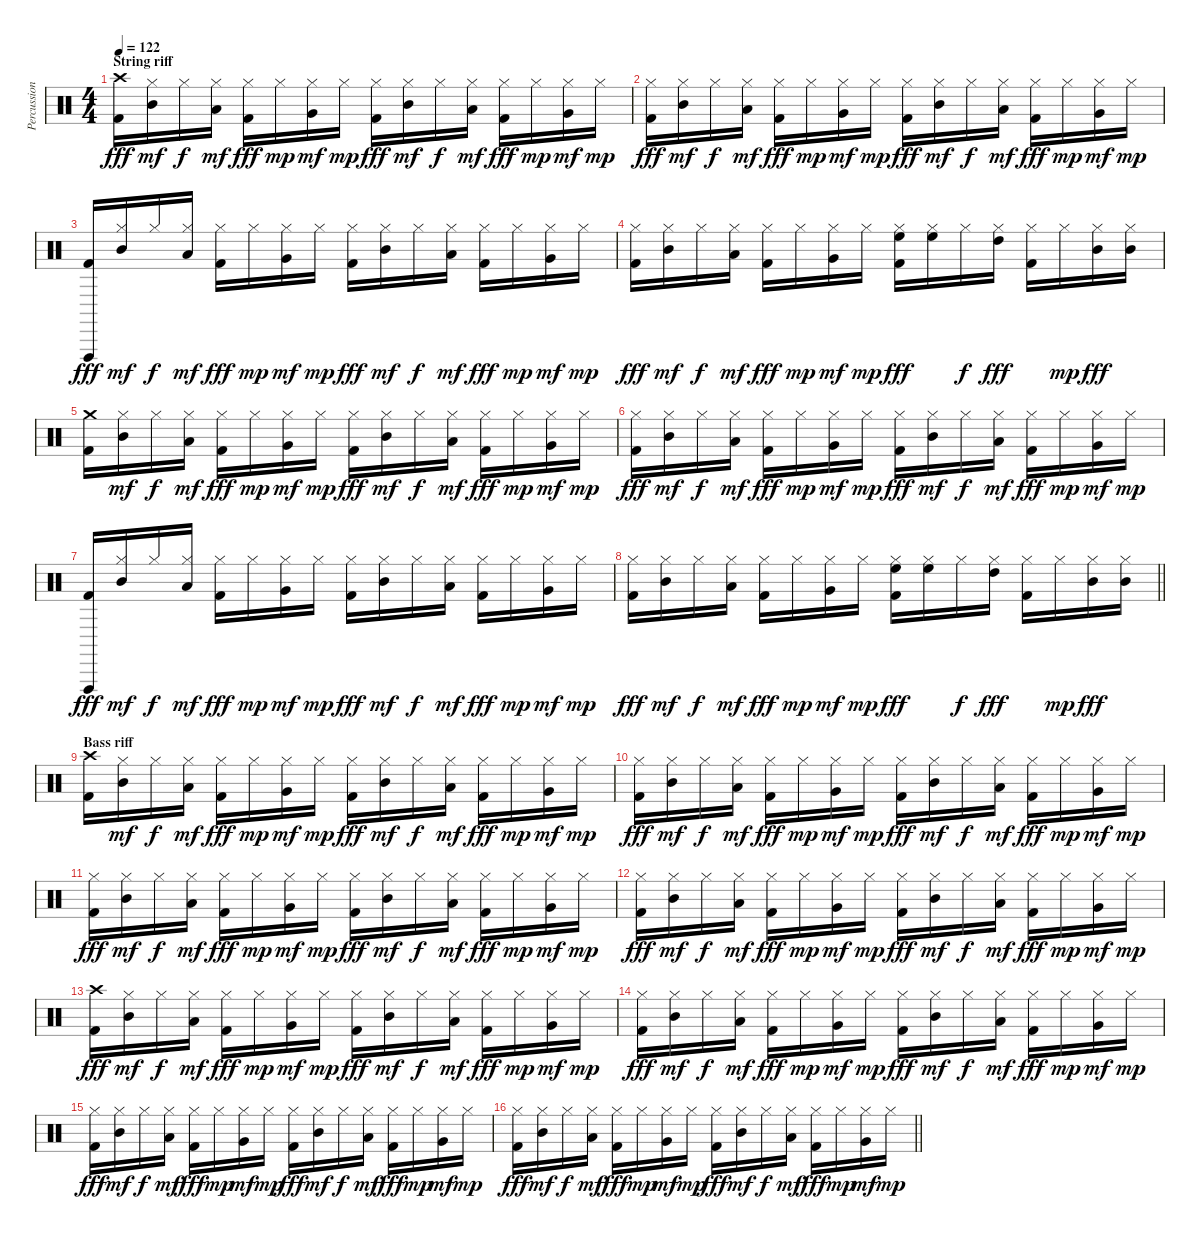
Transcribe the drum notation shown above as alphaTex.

\track ("Percussions" "Percussion") {instrument percussion}
\staff {score}
\articulation defaults
\ts (4 4)
\section ("" "String riff")
\tempo 122
\clef neutral
\ks c
("Crash high (hit)" "Kick (hit) 2").16{dy fff} ("Hi-Hat (closed)" "Mid Tom (hit)").16{dy mf} "Hi-Hat (closed)".16{dy f} ("Hi-Hat (closed)" "Low Tom (hit)").16{dy mf} ("Hi-Hat (closed)" "Kick (hit) 2").16{dy fff} "Hi-Hat (closed)".16{dy mp} ("Hi-Hat (closed)" "Very Low Tom (hit)").16{dy mf} "Hi-Hat (closed)".16{dy mp} ("Hi-Hat (closed)" "Kick (hit) 2").16{dy fff} ("Hi-Hat (closed)" "Mid Tom (hit)").16{dy mf} "Hi-Hat (closed)".16{dy f} ("Hi-Hat (closed)" "Low Tom (hit)").16{dy mf} ("Hi-Hat (closed)" "Kick (hit) 2").16{dy fff} "Hi-Hat (closed)".16{dy mp} ("Hi-Hat (closed)" "Very Low Tom (hit)").16{dy mf} "Hi-Hat (closed)".16{dy mp} |
("Hi-Hat (closed)" "Kick (hit) 2").16{dy fff} ("Hi-Hat (closed)" "Mid Tom (hit)").16{dy mf} "Hi-Hat (closed)".16{dy f} ("Hi-Hat (closed)" "Low Tom (hit)").16{dy mf} ("Hi-Hat (closed)" "Kick (hit) 2").16{dy fff} "Hi-Hat (closed)".16{dy mp} ("Hi-Hat (closed)" "Very Low Tom (hit)").16{dy mf} "Hi-Hat (closed)".16{dy mp} ("Hi-Hat (closed)" "Kick (hit) 2").16{dy fff} ("Hi-Hat (closed)" "Mid Tom (hit)").16{dy mf} "Hi-Hat (closed)".16{dy f} ("Hi-Hat (closed)" "Low Tom (hit)").16{dy mf} ("Hi-Hat (closed)" "Kick (hit) 2").16{dy fff} "Hi-Hat (closed)".16{dy mp} ("Hi-Hat (closed)" "Very Low Tom (hit)").16{dy mf} "Hi-Hat (closed)".16{dy mp} |
("Vibraslap (hit)" "Kick (hit) 2").16{dy fff} ("Hi-Hat (closed)" "Mid Tom (hit)").16{dy mf} "Hi-Hat (closed)".16{dy f} ("Hi-Hat (closed)" "Low Tom (hit)").16{dy mf} ("Hi-Hat (closed)" "Kick (hit) 2").16{dy fff} "Hi-Hat (closed)".16{dy mp} ("Hi-Hat (closed)" "Very Low Tom (hit)").16{dy mf} "Hi-Hat (closed)".16{dy mp} ("Hi-Hat (closed)" "Kick (hit) 2").16{dy fff} ("Hi-Hat (closed)" "Mid Tom (hit)").16{dy mf} "Hi-Hat (closed)".16{dy f} ("Hi-Hat (closed)" "Low Tom (hit)").16{dy mf} ("Hi-Hat (closed)" "Kick (hit) 2").16{dy fff} "Hi-Hat (closed)".16{dy mp} ("Hi-Hat (closed)" "Very Low Tom (hit)").16{dy mf} "Hi-Hat (closed)".16{dy mp} |
("Hi-Hat (closed)" "Kick (hit) 2").16{dy fff} ("Hi-Hat (closed)" "Mid Tom (hit)").16{dy mf} "Hi-Hat (closed)".16{dy f} ("Hi-Hat (closed)" "Low Tom (hit)").16{dy mf} ("Hi-Hat (closed)" "Kick (hit) 2").16{dy fff} "Hi-Hat (closed)".16{dy mp} ("Hi-Hat (closed)" "Very Low Tom (hit)").16{dy mf} "Hi-Hat (closed)".16{dy mp} ("Hi-Hat (closed)" "High Floor Tom (hit)" "Kick (hit) 2").16{dy fff} ("Hi-Hat (closed)" "High Floor Tom (hit)").16 "Hi-Hat (closed)".16{dy f} ("Hi-Hat (closed)" "High Tom (hit)").16{dy fff} ("Hi-Hat (closed)" "Kick (hit) 2").16 "Hi-Hat (closed)".16{dy mp} ("Hi-Hat (closed)" "Mid Tom (hit)").16{dy fff} ("Hi-Hat (closed)" "Mid Tom (hit)").16 |
("Crash medium (hit)" "Kick (hit) 2").16 ("Hi-Hat (closed)" "Mid Tom (hit)").16{dy mf} "Hi-Hat (closed)".16{dy f} ("Hi-Hat (closed)" "Low Tom (hit)").16{dy mf} ("Hi-Hat (closed)" "Kick (hit) 2").16{dy fff} "Hi-Hat (closed)".16{dy mp} ("Hi-Hat (closed)" "Very Low Tom (hit)").16{dy mf} "Hi-Hat (closed)".16{dy mp} ("Hi-Hat (closed)" "Kick (hit) 2").16{dy fff} ("Hi-Hat (closed)" "Mid Tom (hit)").16{dy mf} "Hi-Hat (closed)".16{dy f} ("Hi-Hat (closed)" "Low Tom (hit)").16{dy mf} ("Hi-Hat (closed)" "Kick (hit) 2").16{dy fff} "Hi-Hat (closed)".16{dy mp} ("Hi-Hat (closed)" "Very Low Tom (hit)").16{dy mf} "Hi-Hat (closed)".16{dy mp} |
("Hi-Hat (closed)" "Kick (hit) 2").16{dy fff} ("Hi-Hat (closed)" "Mid Tom (hit)").16{dy mf} "Hi-Hat (closed)".16{dy f} ("Hi-Hat (closed)" "Low Tom (hit)").16{dy mf} ("Hi-Hat (closed)" "Kick (hit) 2").16{dy fff} "Hi-Hat (closed)".16{dy mp} ("Hi-Hat (closed)" "Very Low Tom (hit)").16{dy mf} "Hi-Hat (closed)".16{dy mp} ("Hi-Hat (closed)" "Kick (hit) 2").16{dy fff} ("Hi-Hat (closed)" "Mid Tom (hit)").16{dy mf} "Hi-Hat (closed)".16{dy f} ("Hi-Hat (closed)" "Low Tom (hit)").16{dy mf} ("Hi-Hat (closed)" "Kick (hit) 2").16{dy fff} "Hi-Hat (closed)".16{dy mp} ("Hi-Hat (closed)" "Very Low Tom (hit)").16{dy mf} "Hi-Hat (closed)".16{dy mp} |
("Vibraslap (hit)" "Kick (hit) 2").16{dy fff} ("Hi-Hat (closed)" "Mid Tom (hit)").16{dy mf} "Hi-Hat (closed)".16{dy f} ("Hi-Hat (closed)" "Low Tom (hit)").16{dy mf} ("Hi-Hat (closed)" "Kick (hit) 2").16{dy fff} "Hi-Hat (closed)".16{dy mp} ("Hi-Hat (closed)" "Very Low Tom (hit)").16{dy mf} "Hi-Hat (closed)".16{dy mp} ("Hi-Hat (closed)" "Kick (hit) 2").16{dy fff} ("Hi-Hat (closed)" "Mid Tom (hit)").16{dy mf} "Hi-Hat (closed)".16{dy f} ("Hi-Hat (closed)" "Low Tom (hit)").16{dy mf} ("Hi-Hat (closed)" "Kick (hit) 2").16{dy fff} "Hi-Hat (closed)".16{dy mp} ("Hi-Hat (closed)" "Very Low Tom (hit)").16{dy mf} "Hi-Hat (closed)".16{dy mp} |
\barLineRight lightlight
("Hi-Hat (closed)" "Kick (hit) 2").16{dy fff} ("Hi-Hat (closed)" "Mid Tom (hit)").16{dy mf} "Hi-Hat (closed)".16{dy f} ("Hi-Hat (closed)" "Low Tom (hit)").16{dy mf} ("Hi-Hat (closed)" "Kick (hit) 2").16{dy fff} "Hi-Hat (closed)".16{dy mp} ("Hi-Hat (closed)" "Very Low Tom (hit)").16{dy mf} "Hi-Hat (closed)".16{dy mp} ("Hi-Hat (closed)" "High Floor Tom (hit)" "Kick (hit) 2").16{dy fff} ("Hi-Hat (closed)" "High Floor Tom (hit)").16 "Hi-Hat (closed)".16{dy f} ("Hi-Hat (closed)" "High Tom (hit)").16{dy fff} ("Hi-Hat (closed)" "Kick (hit) 2").16 "Hi-Hat (closed)".16{dy mp} ("Hi-Hat (closed)" "Mid Tom (hit)").16{dy fff} ("Hi-Hat (closed)" "Mid Tom (hit)").16 |
\section ("" "Bass riff")
("Crash high (hit)" "Kick (hit) 2").16 ("Hi-Hat (closed)" "Mid Tom (hit)").16{dy mf} "Hi-Hat (closed)".16{dy f} ("Hi-Hat (closed)" "Low Tom (hit)").16{dy mf} ("Hi-Hat (closed)" "Kick (hit) 2").16{dy fff} "Hi-Hat (closed)".16{dy mp} ("Hi-Hat (closed)" "Very Low Tom (hit)").16{dy mf} "Hi-Hat (closed)".16{dy mp} ("Hi-Hat (closed)" "Kick (hit) 2").16{dy fff} ("Hi-Hat (closed)" "Mid Tom (hit)").16{dy mf} "Hi-Hat (closed)".16{dy f} ("Hi-Hat (closed)" "Low Tom (hit)").16{dy mf} ("Hi-Hat (closed)" "Kick (hit) 2").16{dy fff} "Hi-Hat (closed)".16{dy mp} ("Hi-Hat (closed)" "Very Low Tom (hit)").16{dy mf} "Hi-Hat (closed)".16{dy mp} |
("Hi-Hat (closed)" "Kick (hit) 2").16{dy fff} ("Hi-Hat (closed)" "Mid Tom (hit)").16{dy mf} "Hi-Hat (closed)".16{dy f} ("Hi-Hat (closed)" "Low Tom (hit)").16{dy mf} ("Hi-Hat (closed)" "Kick (hit) 2").16{dy fff} "Hi-Hat (closed)".16{dy mp} ("Hi-Hat (closed)" "Very Low Tom (hit)").16{dy mf} "Hi-Hat (closed)".16{dy mp} ("Hi-Hat (closed)" "Kick (hit) 2").16{dy fff} ("Hi-Hat (closed)" "Mid Tom (hit)").16{dy mf} "Hi-Hat (closed)".16{dy f} ("Hi-Hat (closed)" "Low Tom (hit)").16{dy mf} ("Hi-Hat (closed)" "Kick (hit) 2").16{dy fff} "Hi-Hat (closed)".16{dy mp} ("Hi-Hat (closed)" "Very Low Tom (hit)").16{dy mf} "Hi-Hat (closed)".16{dy mp} |
("Hi-Hat (closed)" "Kick (hit) 2").16{dy fff} ("Hi-Hat (closed)" "Mid Tom (hit)").16{dy mf} "Hi-Hat (closed)".16{dy f} ("Hi-Hat (closed)" "Low Tom (hit)").16{dy mf} ("Hi-Hat (closed)" "Kick (hit) 2").16{dy fff} "Hi-Hat (closed)".16{dy mp} ("Hi-Hat (closed)" "Very Low Tom (hit)").16{dy mf} "Hi-Hat (closed)".16{dy mp} ("Hi-Hat (closed)" "Kick (hit) 2").16{dy fff} ("Hi-Hat (closed)" "Mid Tom (hit)").16{dy mf} "Hi-Hat (closed)".16{dy f} ("Hi-Hat (closed)" "Low Tom (hit)").16{dy mf} ("Hi-Hat (closed)" "Kick (hit) 2").16{dy fff} "Hi-Hat (closed)".16{dy mp} ("Hi-Hat (closed)" "Very Low Tom (hit)").16{dy mf} "Hi-Hat (closed)".16{dy mp} |
("Hi-Hat (closed)" "Kick (hit) 2").16{dy fff} ("Hi-Hat (closed)" "Mid Tom (hit)").16{dy mf} "Hi-Hat (closed)".16{dy f} ("Hi-Hat (closed)" "Low Tom (hit)").16{dy mf} ("Hi-Hat (closed)" "Kick (hit) 2").16{dy fff} "Hi-Hat (closed)".16{dy mp} ("Hi-Hat (closed)" "Very Low Tom (hit)").16{dy mf} "Hi-Hat (closed)".16{dy mp} ("Hi-Hat (closed)" "Kick (hit) 2").16{dy fff} ("Hi-Hat (closed)" "Mid Tom (hit)").16{dy mf} "Hi-Hat (closed)".16{dy f} ("Hi-Hat (closed)" "Low Tom (hit)").16{dy mf} ("Hi-Hat (closed)" "Kick (hit) 2").16{dy fff} "Hi-Hat (closed)".16{dy mp} ("Hi-Hat (closed)" "Very Low Tom (hit)").16{dy mf} "Hi-Hat (closed)".16{dy mp} |
("Crash high (hit)" "Kick (hit) 2").16{dy fff} ("Hi-Hat (closed)" "Mid Tom (hit)").16{dy mf} "Hi-Hat (closed)".16{dy f} ("Hi-Hat (closed)" "Low Tom (hit)").16{dy mf} ("Hi-Hat (closed)" "Kick (hit) 2").16{dy fff} "Hi-Hat (closed)".16{dy mp} ("Hi-Hat (closed)" "Very Low Tom (hit)").16{dy mf} "Hi-Hat (closed)".16{dy mp} ("Hi-Hat (closed)" "Kick (hit) 2").16{dy fff} ("Hi-Hat (closed)" "Mid Tom (hit)").16{dy mf} "Hi-Hat (closed)".16{dy f} ("Hi-Hat (closed)" "Low Tom (hit)").16{dy mf} ("Hi-Hat (closed)" "Kick (hit) 2").16{dy fff} "Hi-Hat (closed)".16{dy mp} ("Hi-Hat (closed)" "Very Low Tom (hit)").16{dy mf} "Hi-Hat (closed)".16{dy mp} |
("Hi-Hat (closed)" "Kick (hit) 2").16{dy fff} ("Hi-Hat (closed)" "Mid Tom (hit)").16{dy mf} "Hi-Hat (closed)".16{dy f} ("Hi-Hat (closed)" "Low Tom (hit)").16{dy mf} ("Hi-Hat (closed)" "Kick (hit) 2").16{dy fff} "Hi-Hat (closed)".16{dy mp} ("Hi-Hat (closed)" "Very Low Tom (hit)").16{dy mf} "Hi-Hat (closed)".16{dy mp} ("Hi-Hat (closed)" "Kick (hit) 2").16{dy fff} ("Hi-Hat (closed)" "Mid Tom (hit)").16{dy mf} "Hi-Hat (closed)".16{dy f} ("Hi-Hat (closed)" "Low Tom (hit)").16{dy mf} ("Hi-Hat (closed)" "Kick (hit) 2").16{dy fff} "Hi-Hat (closed)".16{dy mp} ("Hi-Hat (closed)" "Very Low Tom (hit)").16{dy mf} "Hi-Hat (closed)".16{dy mp} |
("Hi-Hat (closed)" "Kick (hit) 2").16{dy fff} ("Hi-Hat (closed)" "Mid Tom (hit)").16{dy mf} "Hi-Hat (closed)".16{dy f} ("Hi-Hat (closed)" "Low Tom (hit)").16{dy mf} ("Hi-Hat (closed)" "Kick (hit) 2").16{dy fff} "Hi-Hat (closed)".16{dy mp} ("Hi-Hat (closed)" "Very Low Tom (hit)").16{dy mf} "Hi-Hat (closed)".16{dy mp} ("Hi-Hat (closed)" "Kick (hit) 2").16{dy fff} ("Hi-Hat (closed)" "Mid Tom (hit)").16{dy mf} "Hi-Hat (closed)".16{dy f} ("Hi-Hat (closed)" "Low Tom (hit)").16{dy mf} ("Hi-Hat (closed)" "Kick (hit) 2").16{dy fff} "Hi-Hat (closed)".16{dy mp} ("Hi-Hat (closed)" "Very Low Tom (hit)").16{dy mf} "Hi-Hat (closed)".16{dy mp} |
\barLineRight lightlight
("Hi-Hat (closed)" "Kick (hit) 2").16{dy fff} ("Hi-Hat (closed)" "Mid Tom (hit)").16{dy mf} "Hi-Hat (closed)".16{dy f} ("Hi-Hat (closed)" "Low Tom (hit)").16{dy mf} ("Hi-Hat (closed)" "Kick (hit) 2").16{dy fff} "Hi-Hat (closed)".16{dy mp} ("Hi-Hat (closed)" "Very Low Tom (hit)").16{dy mf} "Hi-Hat (closed)".16{dy mp} ("Hi-Hat (closed)" "Kick (hit) 2").16{dy fff} ("Hi-Hat (closed)" "Mid Tom (hit)").16{dy mf} "Hi-Hat (closed)".16{dy f} ("Hi-Hat (closed)" "Low Tom (hit)").16{dy mf} ("Hi-Hat (closed)" "Kick (hit) 2").16{dy fff} "Hi-Hat (closed)".16{dy mp} ("Hi-Hat (closed)" "Very Low Tom (hit)").16{dy mf} "Hi-Hat (closed)".16{dy mp}
